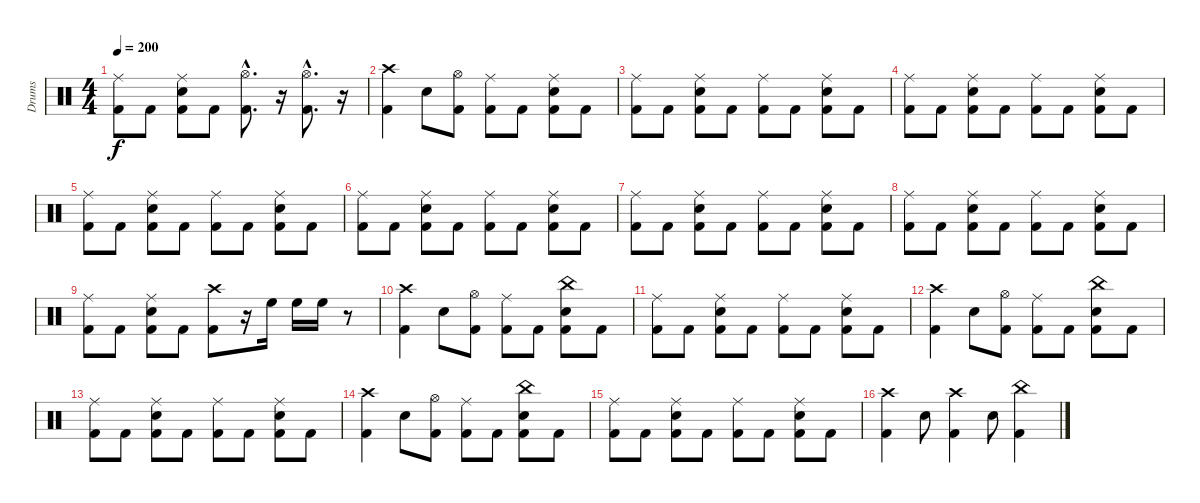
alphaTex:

\track ("Drums" "Drums") {instrument percussion}
\staff {score}
\articulation defaults
\ts (4 4)
\tempo 200
\clef neutral
\ks c
("Ride (middle)" "Kick (hit) 2").8{dy f} "Kick (hit) 2".8 ("Ride (middle)" "Snare (hit) 2" "Kick (hit) 2").8 "Kick (hit) 2".8 ("Hi-Hat (open)"{hac} "Kick (hit) 2"{hac}).8{d} r.16 ("Hi-Hat (open)"{hac} "Kick (hit) 2"{hac}).8{d} r.16 |
("Crash high (hit)" "Kick (hit) 2").4 "Snare (hit) 2".8 ("Hi-Hat (open)" "Kick (hit) 2").8 ("Ride (middle)" "Kick (hit) 2").8 "Kick (hit) 2".8 ("Ride (middle)" "Snare (hit) 2" "Kick (hit) 2").8 "Kick (hit) 2".8 |
("Ride (middle)" "Kick (hit) 2").8 "Kick (hit) 2".8 ("Ride (middle)" "Snare (hit) 2" "Kick (hit) 2").8 "Kick (hit) 2".8 ("Ride (middle)" "Kick (hit) 2").8 "Kick (hit) 2".8 ("Ride (middle)" "Snare (hit) 2" "Kick (hit) 2").8 "Kick (hit) 2".8 |
("Ride (middle)" "Kick (hit) 2").8 "Kick (hit) 2".8 ("Ride (middle)" "Snare (hit) 2" "Kick (hit) 2").8 "Kick (hit) 2".8 ("Ride (middle)" "Kick (hit) 2").8 "Kick (hit) 2".8 ("Ride (middle)" "Snare (hit) 2" "Kick (hit) 2").8 "Kick (hit) 2".8 |
("Ride (middle)" "Kick (hit) 2").8 "Kick (hit) 2".8 ("Ride (middle)" "Snare (hit) 2" "Kick (hit) 2").8 "Kick (hit) 2".8 ("Ride (middle)" "Kick (hit) 2").8 "Kick (hit) 2".8 ("Ride (middle)" "Snare (hit) 2" "Kick (hit) 2").8 "Kick (hit) 2".8 |
("Ride (middle)" "Kick (hit) 2").8 "Kick (hit) 2".8 ("Ride (middle)" "Snare (hit) 2" "Kick (hit) 2").8 "Kick (hit) 2".8 ("Ride (middle)" "Kick (hit) 2").8 "Kick (hit) 2".8 ("Ride (middle)" "Snare (hit) 2" "Kick (hit) 2").8 "Kick (hit) 2".8 |
("Ride (middle)" "Kick (hit) 2").8 "Kick (hit) 2".8 ("Ride (middle)" "Snare (hit) 2" "Kick (hit) 2").8 "Kick (hit) 2".8 ("Ride (middle)" "Kick (hit) 2").8 "Kick (hit) 2".8 ("Ride (middle)" "Snare (hit) 2" "Kick (hit) 2").8 "Kick (hit) 2".8 |
("Ride (middle)" "Kick (hit) 2").8 "Kick (hit) 2".8 ("Ride (middle)" "Snare (hit) 2" "Kick (hit) 2").8 "Kick (hit) 2".8 ("Ride (middle)" "Kick (hit) 2").8 "Kick (hit) 2".8 ("Ride (middle)" "Snare (hit) 2" "Kick (hit) 2").8 "Kick (hit) 2".8 |
("Ride (middle)" "Kick (hit) 2").8 "Kick (hit) 2".8 ("Ride (middle)" "Snare (hit) 2" "Kick (hit) 2").8 "Kick (hit) 2".8 ("Crash high (hit)" "Kick (hit) 2").8 r.16 "High Floor Tom (hit)".16 "High Floor Tom (hit)".16 "High Floor Tom (hit)".16 r.8 |
("Crash high (hit)" "Kick (hit) 2").4 "Snare (hit) 2".8 ("Hi-Hat (open)" "Kick (hit) 2").8 ("Ride (middle)" "Kick (hit) 2").8 "Kick (hit) 2".8 ("China (hit)" "Snare (hit) 2" "Kick (hit) 2").8 "Kick (hit) 2".8 |
("Ride (middle)" "Kick (hit) 2").8 "Kick (hit) 2".8 ("Ride (middle)" "Snare (hit) 2" "Kick (hit) 2").8 "Kick (hit) 2".8 ("Ride (middle)" "Kick (hit) 2").8 "Kick (hit) 2".8 ("Ride (middle)" "Snare (hit) 2" "Kick (hit) 2").8 "Kick (hit) 2".8 |
("Crash high (hit)" "Kick (hit) 2").4 "Snare (hit) 2".8 ("Hi-Hat (open)" "Kick (hit) 2").8 ("Ride (middle)" "Kick (hit) 2").8 "Kick (hit) 2".8 ("China (hit)" "Snare (hit) 2" "Kick (hit) 2").8 "Kick (hit) 2".8 |
("Ride (middle)" "Kick (hit) 2").8 "Kick (hit) 2".8 ("Ride (middle)" "Snare (hit) 2" "Kick (hit) 2").8 "Kick (hit) 2".8 ("Ride (middle)" "Kick (hit) 2").8 "Kick (hit) 2".8 ("Ride (middle)" "Snare (hit) 2" "Kick (hit) 2").8 "Kick (hit) 2".8 |
("Crash high (hit)" "Kick (hit) 2").4 "Snare (hit) 2".8 ("Hi-Hat (open)" "Kick (hit) 2").8 ("Ride (middle)" "Kick (hit) 2").8 "Kick (hit) 2".8 ("China (hit)" "Snare (hit) 2" "Kick (hit) 2").8 "Kick (hit) 2".8 |
("Ride (middle)" "Kick (hit) 2").8 "Kick (hit) 2".8 ("Ride (middle)" "Snare (hit) 2" "Kick (hit) 2").8 "Kick (hit) 2".8 ("Ride (middle)" "Kick (hit) 2").8 "Kick (hit) 2".8 ("Ride (middle)" "Snare (hit) 2" "Kick (hit) 2").8 "Kick (hit) 2".8 |
("Crash high (hit)" "Kick (hit) 2").4 "Snare (hit) 2".8 ("Crash high (hit)" "Kick (hit) 2").4 "Snare (hit) 2".8 ("China (hit)" "Kick (hit) 2").4
